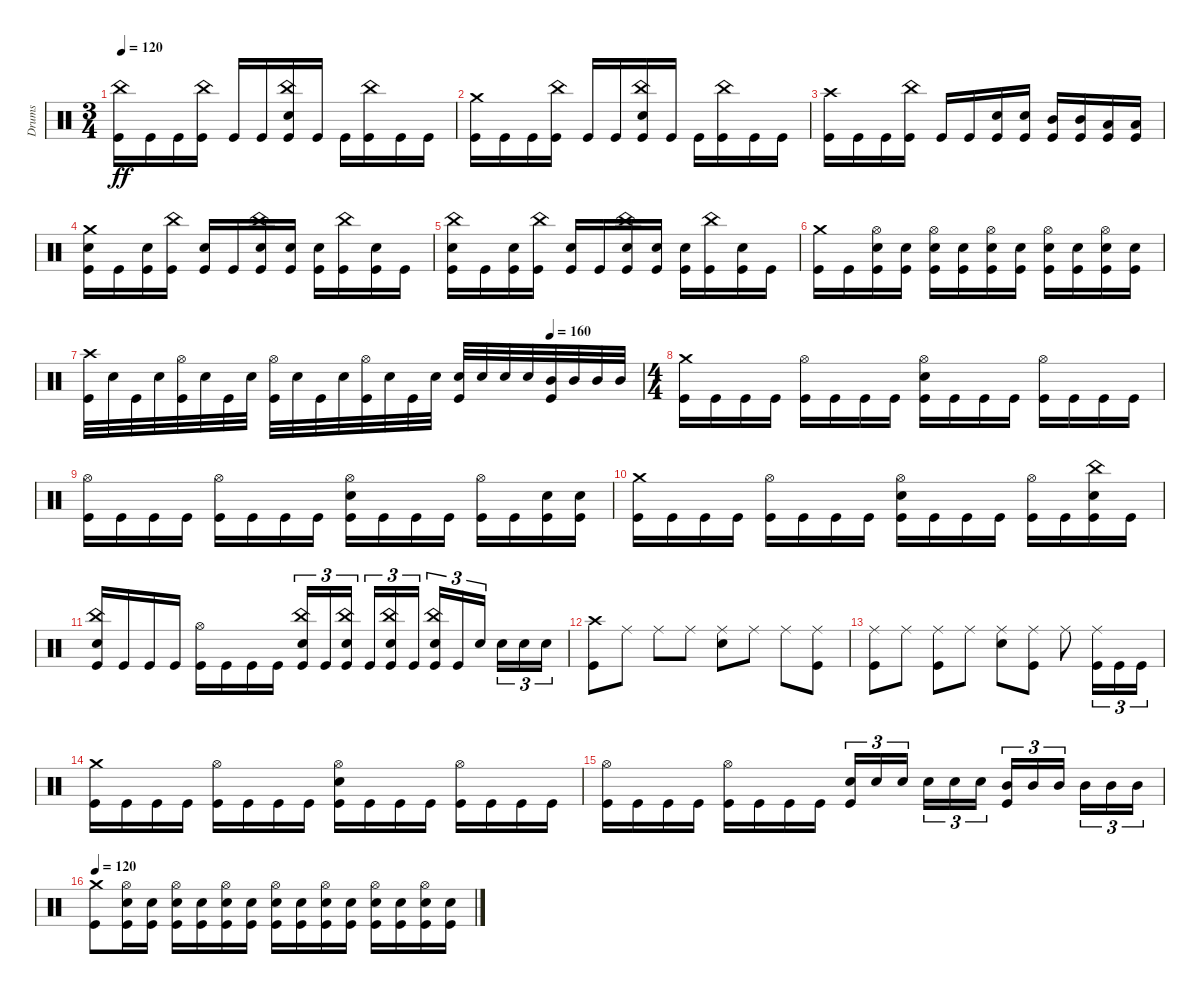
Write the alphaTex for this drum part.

\track ("Drums" "Drums") {instrument percussion}
\staff {score}
\articulation defaults
\ts (3 4)
\tempo 120
\clef neutral
\ks c
("Kick (hit)" "China (hit)").16{dy ff} "Kick (hit)".16 "Kick (hit)".16 ("Kick (hit)" "China (hit)").16 "Kick (hit)".16 "Kick (hit)".16 ("Kick (hit)" "Snare (hit) 2" "China (hit)").16 "Kick (hit)".16 "Kick (hit)".16 ("Kick (hit)" "China (hit)").16 "Kick (hit)".16 "Kick (hit)".16 |
("Kick (hit)" "Crash medium (hit)").16 "Kick (hit)".16 "Kick (hit)".16 ("Kick (hit)" "China (hit)").16 "Kick (hit)".16 "Kick (hit)".16 ("Kick (hit)" "Snare (hit) 2" "China (hit)").16 "Kick (hit)".16 "Kick (hit)".16 ("Kick (hit)" "China (hit)").16 "Kick (hit)".16 "Kick (hit)".16 |
("Kick (hit)" "Crash high (hit)").16 "Kick (hit)".16 "Kick (hit)".16 ("Kick (hit)" "China (hit)").16 "Kick (hit)".16 "Kick (hit)".16 ("Kick (hit)" "Snare (hit) 2").16 ("Kick (hit)" "Snare (hit) 2").16 ("Kick (hit)" "Mid Tom (hit)").16 ("Kick (hit)" "Mid Tom (hit)").16 ("Kick (hit)" "Low Tom (hit)").16 ("Kick (hit)" "Low Tom (hit)").16 |
("Kick (hit)" "Crash medium (hit)" "Snare (hit) 2").16 "Kick (hit)".16 ("Kick (hit)" "Snare (hit) 2").16 ("Kick (hit)" "China (hit)").16 ("Kick (hit)" "Snare (hit) 2").16 "Kick (hit)".16 ("Kick (hit)" "Snare (hit) 2" "China (hit)").16 ("Kick (hit)" "Snare (hit) 2").16 ("Kick (hit)" "Snare (hit) 2").16 ("Kick (hit)" "China (hit)").16 ("Kick (hit)" "Snare (hit) 2").16 "Kick (hit)".16 |
("Kick (hit)" "China (hit)" "Snare (hit) 2").16 "Kick (hit)".16 ("Kick (hit)" "Snare (hit) 2").16 ("Kick (hit)" "China (hit)").16 ("Kick (hit)" "Snare (hit) 2").16 "Kick (hit)".16 ("Kick (hit)" "Snare (hit) 2" "China (hit)").16 ("Kick (hit)" "Snare (hit) 2").16 ("Kick (hit)" "Snare (hit) 2").16 ("Kick (hit)" "China (hit)").16 ("Kick (hit)" "Snare (hit) 2").16 "Kick (hit)".16 |
("Kick (hit)" "Crash medium (hit)").16 "Kick (hit)".16 ("Kick (hit)" "Snare (hit) 2" "Hi-Hat (open)").16 ("Kick (hit)" "Snare (hit) 2").16 ("Kick (hit)" "Snare (hit) 2" "Hi-Hat (open)").16 ("Kick (hit)" "Snare (hit) 2").16 ("Kick (hit)" "Snare (hit) 2" "Hi-Hat (open)").16 ("Kick (hit)" "Snare (hit) 2").16 ("Kick (hit)" "Snare (hit) 2" "Hi-Hat (open)").16 ("Kick (hit)" "Snare (hit) 2").16 ("Kick (hit)" "Snare (hit) 2" "Hi-Hat (open)").16 ("Kick (hit)" "Snare (hit) 2").16 |
\tempo (160 0.8333333333333334)
("Kick (hit)" "Crash high (hit)").32 "Snare (hit) 2".32 "Kick (hit)".32 "Snare (hit) 2".32 ("Kick (hit)" "Hi-Hat (open)").32 "Snare (hit) 2".32 "Kick (hit)".32 "Snare (hit) 2".32 ("Kick (hit)" "Hi-Hat (open)").32 "Snare (hit) 2".32 "Kick (hit)".32 "Snare (hit) 2".32 ("Kick (hit)" "Hi-Hat (open)").32 "Snare (hit) 2".32 "Kick (hit)".32 "Snare (hit) 2".32 ("Snare (hit) 2" "Kick (hit)").32 "Snare (hit) 2".32 "Snare (hit) 2".32 "Snare (hit) 2".32 ("Mid Tom (hit)" "Kick (hit)").32 "Mid Tom (hit)".32 "Mid Tom (hit)".32 "Mid Tom (hit)".32 |
\ts (4 4)
("Kick (hit)" "Crash medium (hit)").16 "Kick (hit)".16 "Kick (hit)".16 "Kick (hit)".16 ("Kick (hit)" "Hi-Hat (open)").16 "Kick (hit)".16 "Kick (hit)".16 "Kick (hit)".16 ("Kick (hit)" "Snare (hit) 2" "Hi-Hat (open)").16 "Kick (hit)".16 "Kick (hit)".16 "Kick (hit)".16 ("Kick (hit)" "Hi-Hat (open)").16 "Kick (hit)".16 "Kick (hit)".16 "Kick (hit)".16 |
("Kick (hit)" "Hi-Hat (open)").16 "Kick (hit)".16 "Kick (hit)".16 "Kick (hit)".16 ("Kick (hit)" "Hi-Hat (open)").16 "Kick (hit)".16 "Kick (hit)".16 "Kick (hit)".16 ("Kick (hit)" "Hi-Hat (open)" "Snare (hit) 2").16 "Kick (hit)".16 "Kick (hit)".16 "Kick (hit)".16 ("Kick (hit)" "Hi-Hat (open)").16 "Kick (hit)".16 ("Kick (hit)" "Snare (hit) 2").16 ("Kick (hit)" "Snare (hit) 2").16 |
("Kick (hit)" "Crash medium (hit)").16 "Kick (hit)".16 "Kick (hit)".16 "Kick (hit)".16 ("Kick (hit)" "Hi-Hat (open)").16 "Kick (hit)".16 "Kick (hit)".16 "Kick (hit)".16 ("Kick (hit)" "Hi-Hat (open)" "Snare (hit) 2").16 "Kick (hit)".16 "Kick (hit)".16 "Kick (hit)".16 ("Kick (hit)" "Hi-Hat (open)").16 "Kick (hit)".16 ("Kick (hit)" "Snare (hit) 2" "China (hit)").16 "Kick (hit)".16 |
("Kick (hit)" "Snare (hit) 2" "China (hit)").16 "Kick (hit)".16 "Kick (hit)".16 "Kick (hit)".16 ("Kick (hit)" "Hi-Hat (open)").16 "Kick (hit)".16 "Kick (hit)".16 "Kick (hit)".16 ("Kick (hit)" "Snare (hit) 2" "China (hit)").16{tu (3 2)} "Kick (hit)".16{tu (3 2)} ("Kick (hit)" "Snare (hit) 2" "China (hit)").16{tu (3 2) beam splitsecondary} "Kick (hit)".16{tu (3 2)} ("Kick (hit)" "Snare (hit) 2" "China (hit)").16{tu (3 2)} "Kick (hit)".16{tu (3 2)} ("Kick (hit)" "Snare (hit) 2" "China (hit)").16{tu (3 2)} "Kick (hit)".16{tu (3 2)} "Snare (hit) 2".16{tu (3 2) beam splitsecondary} "Snare (hit) 2".16{tu (3 2)} "Snare (hit) 2".16{tu (3 2)} "Snare (hit) 2".16{tu (3 2)} |
("Kick (hit)" "Crash high (hit)").8 "Ride (middle)".8 "Ride (middle)".8 "Ride (middle)".8 ("Ride (middle)" "Snare (hit) 2").8 "Ride (middle)".8 "Ride (middle)".8 ("Ride (middle)" "Kick (hit)").8 |
("Kick (hit)" "Ride (middle)").8 "Ride (middle)".8 ("Ride (middle)" "Kick (hit)").8 "Ride (middle)".8 ("Ride (middle)" "Snare (hit) 2").8 ("Ride (middle)" "Kick (hit)").8 "Ride (middle)".8 ("Ride (middle)" "Kick (hit)").16{tu (3 2)} "Kick (hit)".16{tu (3 2)} "Kick (hit)".16{tu (3 2)} |
("Kick (hit)" "Crash medium (hit)").16 "Kick (hit)".16 "Kick (hit)".16 "Kick (hit)".16 ("Kick (hit)" "Hi-Hat (open)").16 "Kick (hit)".16 "Kick (hit)".16 "Kick (hit)".16 ("Kick (hit)" "Snare (hit) 2" "Hi-Hat (open)").16 "Kick (hit)".16 "Kick (hit)".16 "Kick (hit)".16 ("Kick (hit)" "Hi-Hat (open)").16 "Kick (hit)".16 "Kick (hit)".16 "Kick (hit)".16 |
("Kick (hit)" "Hi-Hat (open)").16 "Kick (hit)".16 "Kick (hit)".16 "Kick (hit)".16 ("Kick (hit)" "Hi-Hat (open)").16 "Kick (hit)".16 "Kick (hit)".16 "Kick (hit)".16 ("Snare (hit) 2" "Kick (hit)").16{tu (3 2)} "Snare (hit) 2".16{tu (3 2)} "Snare (hit) 2".16{tu (3 2) beam splitsecondary} "Snare (hit) 2".16{tu (3 2)} "Snare (hit) 2".16{tu (3 2)} "Snare (hit) 2".16{tu (3 2)} ("Mid Tom (hit)" "Kick (hit)").16{tu (3 2)} "Mid Tom (hit)".16{tu (3 2)} "Mid Tom (hit)".16{tu (3 2) beam splitsecondary} "Mid Tom (hit)".16{tu (3 2)} "Mid Tom (hit)".16{tu (3 2)} "Mid Tom (hit)".16{tu (3 2)} |
\tempo 120
("Kick (hit)" "Crash medium (hit)").8 ("Snare (hit) 2" "Kick (hit)" "Hi-Hat (open)").16 ("Kick (hit)" "Snare (hit) 2").16 ("Kick (hit)" "Snare (hit) 2" "Hi-Hat (open)").16 ("Kick (hit)" "Snare (hit) 2").16 ("Kick (hit)" "Snare (hit) 2" "Hi-Hat (open)").16 ("Kick (hit)" "Snare (hit) 2").16 ("Kick (hit)" "Snare (hit) 2" "Hi-Hat (open)").16 ("Kick (hit)" "Snare (hit) 2").16 ("Kick (hit)" "Snare (hit) 2" "Hi-Hat (open)").16 ("Kick (hit)" "Snare (hit) 2").16 ("Kick (hit)" "Snare (hit) 2" "Hi-Hat (open)").16 ("Kick (hit)" "Snare (hit) 2").16 ("Kick (hit)" "Snare (hit) 2" "Hi-Hat (open)").16 ("Kick (hit)" "Snare (hit) 2").16
